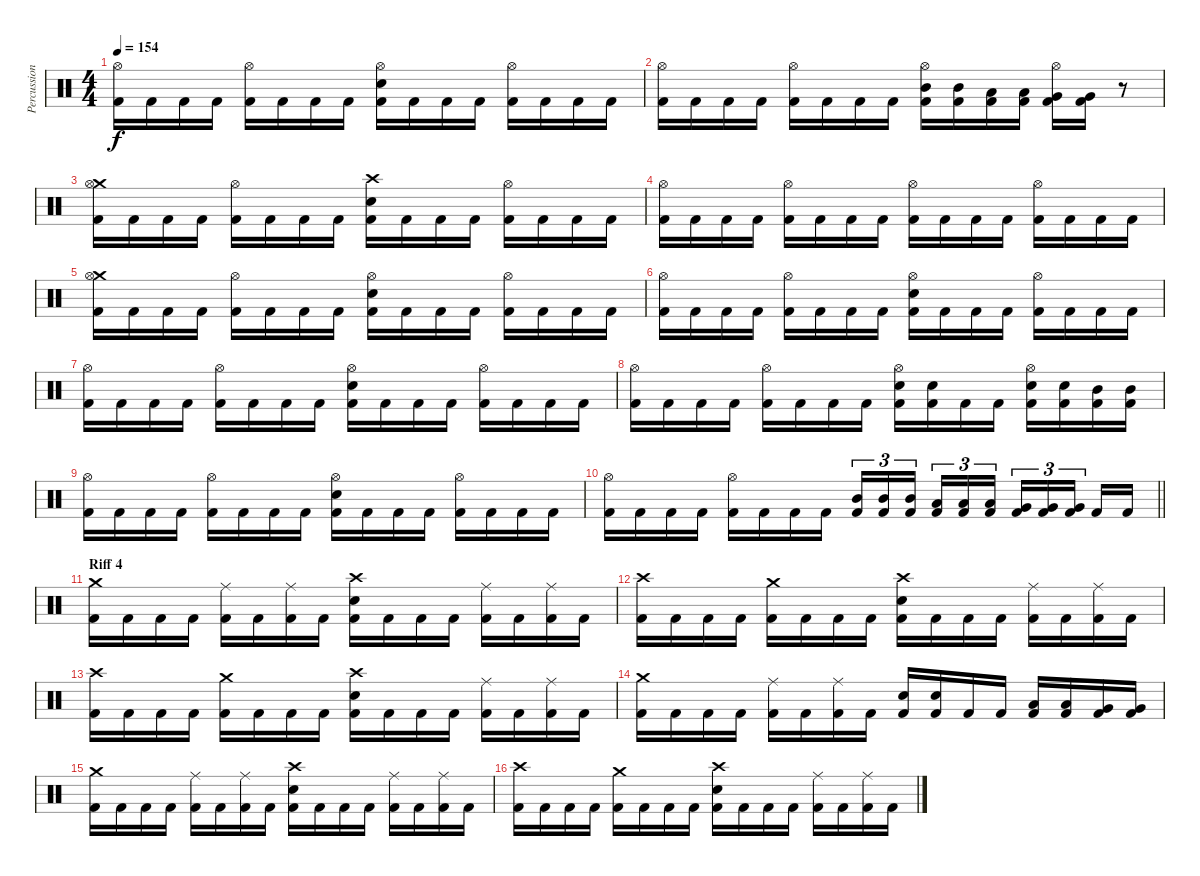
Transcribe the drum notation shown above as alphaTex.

\track ("Percussion" "Percussion") {instrument percussion}
\staff {score}
\articulation defaults
\ts (4 4)
\tempo 154
\clef neutral
\ks c
("Hi-Hat (open)" "Kick (hit) 2").16{dy f} "Kick (hit) 2".16 "Kick (hit) 2".16 "Kick (hit) 2".16 ("Hi-Hat (open)" "Kick (hit) 2").16 "Kick (hit) 2".16 "Kick (hit) 2".16 "Kick (hit) 2".16 ("Hi-Hat (open)" "Electric Snare (hit)" "Kick (hit) 2").16 "Kick (hit) 2".16 "Kick (hit) 2".16 "Kick (hit) 2".16 ("Hi-Hat (open)" "Kick (hit) 2").16 "Kick (hit) 2".16 "Kick (hit) 2".16 "Kick (hit) 2".16 |
("Hi-Hat (open)" "Kick (hit) 2").16 "Kick (hit) 2".16 "Kick (hit) 2".16 "Kick (hit) 2".16 ("Hi-Hat (open)" "Kick (hit) 2").16 "Kick (hit) 2".16 "Kick (hit) 2".16 "Kick (hit) 2".16 ("Hi-Hat (open)" "Mid Tom (hit)" "Kick (hit) 2").16 ("Mid Tom (hit)" "Kick (hit) 2").16 ("Low Tom (hit)" "Kick (hit) 2").16 ("Low Tom (hit)" "Kick (hit) 2").16 ("Hi-Hat (open)" "Very Low Tom (hit)" "Kick (hit) 2").16 ("Very Low Tom (hit)" "Kick (hit) 2").16 r.8 |
("Crash medium (hit)" "Hi-Hat (open)" "Kick (hit) 2").16 "Kick (hit) 2".16 "Kick (hit) 2".16 "Kick (hit) 2".16 ("Hi-Hat (open)" "Kick (hit) 2").16 "Kick (hit) 2".16 "Kick (hit) 2".16 "Kick (hit) 2".16 ("Crash high (hit)" "Electric Snare (hit)" "Kick (hit) 2").16 "Kick (hit) 2".16 "Kick (hit) 2".16 "Kick (hit) 2".16 ("Hi-Hat (open)" "Kick (hit) 2").16 "Kick (hit) 2".16 "Kick (hit) 2".16 "Kick (hit) 2".16 |
("Hi-Hat (open)" "Kick (hit) 2").16 "Kick (hit) 2".16 "Kick (hit) 2".16 "Kick (hit) 2".16 ("Hi-Hat (open)" "Kick (hit) 2").16 "Kick (hit) 2".16 "Kick (hit) 2".16 "Kick (hit) 2".16 ("Hi-Hat (open)" "Kick (hit) 2").16 "Kick (hit) 2".16 "Kick (hit) 2".16 "Kick (hit) 2".16 ("Hi-Hat (open)" "Kick (hit) 2").16 "Kick (hit) 2".16 "Kick (hit) 2".16 "Kick (hit) 2".16 |
("Crash medium (hit)" "Hi-Hat (open)" "Kick (hit) 2").16 "Kick (hit) 2".16 "Kick (hit) 2".16 "Kick (hit) 2".16 ("Hi-Hat (open)" "Kick (hit) 2").16 "Kick (hit) 2".16 "Kick (hit) 2".16 "Kick (hit) 2".16 ("Hi-Hat (open)" "Electric Snare (hit)" "Kick (hit) 2").16 "Kick (hit) 2".16 "Kick (hit) 2".16 "Kick (hit) 2".16 ("Hi-Hat (open)" "Kick (hit) 2").16 "Kick (hit) 2".16 "Kick (hit) 2".16 "Kick (hit) 2".16 |
("Hi-Hat (open)" "Kick (hit) 2").16 "Kick (hit) 2".16 "Kick (hit) 2".16 "Kick (hit) 2".16 ("Hi-Hat (open)" "Kick (hit) 2").16 "Kick (hit) 2".16 "Kick (hit) 2".16 "Kick (hit) 2".16 ("Hi-Hat (open)" "Electric Snare (hit)" "Kick (hit) 2").16 "Kick (hit) 2".16 "Kick (hit) 2".16 "Kick (hit) 2".16 ("Hi-Hat (open)" "Kick (hit) 2").16 "Kick (hit) 2".16 "Kick (hit) 2".16 "Kick (hit) 2".16 |
("Hi-Hat (open)" "Kick (hit) 2").16 "Kick (hit) 2".16 "Kick (hit) 2".16 "Kick (hit) 2".16 ("Hi-Hat (open)" "Kick (hit) 2").16 "Kick (hit) 2".16 "Kick (hit) 2".16 "Kick (hit) 2".16 ("Hi-Hat (open)" "Electric Snare (hit)" "Kick (hit) 2").16 "Kick (hit) 2".16 "Kick (hit) 2".16 "Kick (hit) 2".16 ("Hi-Hat (open)" "Kick (hit) 2").16 "Kick (hit) 2".16 "Kick (hit) 2".16 "Kick (hit) 2".16 |
("Hi-Hat (open)" "Kick (hit) 2").16 "Kick (hit) 2".16 "Kick (hit) 2".16 "Kick (hit) 2".16 ("Hi-Hat (open)" "Kick (hit) 2").16 "Kick (hit) 2".16 "Kick (hit) 2".16 "Kick (hit) 2".16 ("Hi-Hat (open)" "Electric Snare (hit)" "Kick (hit) 2").16 ("Electric Snare (hit)" "Kick (hit) 2").16 "Kick (hit) 2".16 "Kick (hit) 2".16 ("Hi-Hat (open)" "Electric Snare (hit)" "Kick (hit) 2").16 ("Electric Snare (hit)" "Kick (hit) 2").16 ("Mid Tom (hit)" "Kick (hit) 2").16 ("Mid Tom (hit)" "Kick (hit) 2").16 |
("Hi-Hat (open)" "Kick (hit) 2").16 "Kick (hit) 2".16 "Kick (hit) 2".16 "Kick (hit) 2".16 ("Hi-Hat (open)" "Kick (hit) 2").16 "Kick (hit) 2".16 "Kick (hit) 2".16 "Kick (hit) 2".16 ("Hi-Hat (open)" "Electric Snare (hit)" "Kick (hit) 2").16 "Kick (hit) 2".16 "Kick (hit) 2".16 "Kick (hit) 2".16 ("Hi-Hat (open)" "Kick (hit) 2").16 "Kick (hit) 2".16 "Kick (hit) 2".16 "Kick (hit) 2".16 |
\barLineRight lightlight
("Hi-Hat (open)" "Kick (hit) 2").16 "Kick (hit) 2".16 "Kick (hit) 2".16 "Kick (hit) 2".16 ("Hi-Hat (open)" "Kick (hit) 2").16 "Kick (hit) 2".16 "Kick (hit) 2".16 "Kick (hit) 2".16 ("Mid Tom (hit)" "Kick (hit) 2").16{tu (3 2)} ("Mid Tom (hit)" "Kick (hit) 2").16{tu (3 2)} ("Mid Tom (hit)" "Kick (hit) 2").16{tu (3 2) beam splitsecondary} ("Low Tom (hit)" "Kick (hit) 2").16{tu (3 2)} ("Low Tom (hit)" "Kick (hit) 2").16{tu (3 2)} ("Low Tom (hit)" "Kick (hit) 2").16{tu (3 2)} ("Very Low Tom (hit)" "Kick (hit) 2").16{tu (3 2)} ("Very Low Tom (hit)" "Kick (hit) 2").16{tu (3 2)} ("Very Low Tom (hit)" "Kick (hit) 2").16{tu (3 2) beam splitsecondary} "Kick (hit) 2".16 "Kick (hit) 2".16 |
\section ("" "Riff 4")
("Crash medium (hit)" "Kick (hit) 2").16 "Kick (hit) 2".16 "Kick (hit) 2".16 "Kick (hit) 2".16 ("Ride (middle)" "Kick (hit) 2").16 "Kick (hit) 2".16 ("Ride (middle)" "Kick (hit) 2").16 "Kick (hit) 2".16 ("Crash high (hit)" "Electric Snare (hit)" "Kick (hit) 2").16 "Kick (hit) 2".16 "Kick (hit) 2".16 "Kick (hit) 2".16 ("Ride (middle)" "Kick (hit) 2").16 "Kick (hit) 2".16 ("Ride (middle)" "Kick (hit) 2").16 "Kick (hit) 2".16 |
("Crash high (hit)" "Kick (hit) 2").16 "Kick (hit) 2".16 "Kick (hit) 2".16 "Kick (hit) 2".16 ("Crash medium (hit)" "Kick (hit) 2").16 "Kick (hit) 2".16 "Kick (hit) 2".16 "Kick (hit) 2".16 ("Crash high (hit)" "Electric Snare (hit)" "Kick (hit) 2").16 "Kick (hit) 2".16 "Kick (hit) 2".16 "Kick (hit) 2".16 ("Ride (middle)" "Kick (hit) 2").16 "Kick (hit) 2".16 ("Ride (middle)" "Kick (hit) 2").16 "Kick (hit) 2".16 |
("Crash high (hit)" "Kick (hit) 2").16 "Kick (hit) 2".16 "Kick (hit) 2".16 "Kick (hit) 2".16 ("Crash medium (hit)" "Kick (hit) 2").16 "Kick (hit) 2".16 "Kick (hit) 2".16 "Kick (hit) 2".16 ("Crash high (hit)" "Electric Snare (hit)" "Kick (hit) 2").16 "Kick (hit) 2".16 "Kick (hit) 2".16 "Kick (hit) 2".16 ("Ride (middle)" "Kick (hit) 2").16 "Kick (hit) 2".16 ("Ride (middle)" "Kick (hit) 2").16 "Kick (hit) 2".16 |
("Crash medium (hit)" "Kick (hit) 2").16 "Kick (hit) 2".16 "Kick (hit) 2".16 "Kick (hit) 2".16 ("Ride (middle)" "Kick (hit) 2").16 "Kick (hit) 2".16 ("Ride (middle)" "Kick (hit) 2").16 "Kick (hit) 2".16 ("Electric Snare (hit)" "Kick (hit) 2").16 ("Electric Snare (hit)" "Kick (hit) 2").16 "Kick (hit) 2".16 "Kick (hit) 2".16 ("Low Tom (hit)" "Kick (hit) 2").16 ("Low Tom (hit)" "Kick (hit) 2").16 ("Very Low Tom (hit)" "Kick (hit) 2").16 ("Very Low Tom (hit)" "Kick (hit) 2").16 |
("Crash medium (hit)" "Kick (hit) 2").16 "Kick (hit) 2".16 "Kick (hit) 2".16 "Kick (hit) 2".16 ("Ride (middle)" "Kick (hit) 2").16 "Kick (hit) 2".16 ("Ride (middle)" "Kick (hit) 2").16 "Kick (hit) 2".16 ("Crash high (hit)" "Electric Snare (hit)" "Kick (hit) 2").16 "Kick (hit) 2".16 "Kick (hit) 2".16 "Kick (hit) 2".16 ("Ride (middle)" "Kick (hit) 2").16 "Kick (hit) 2".16 ("Ride (middle)" "Kick (hit) 2").16 "Kick (hit) 2".16 |
("Crash high (hit)" "Kick (hit) 2").16 "Kick (hit) 2".16 "Kick (hit) 2".16 "Kick (hit) 2".16 ("Crash medium (hit)" "Kick (hit) 2").16 "Kick (hit) 2".16 "Kick (hit) 2".16 "Kick (hit) 2".16 ("Crash high (hit)" "Electric Snare (hit)" "Kick (hit) 2").16 "Kick (hit) 2".16 "Kick (hit) 2".16 "Kick (hit) 2".16 ("Ride (middle)" "Kick (hit) 2").16 "Kick (hit) 2".16 ("Ride (middle)" "Kick (hit) 2").16 "Kick (hit) 2".16
